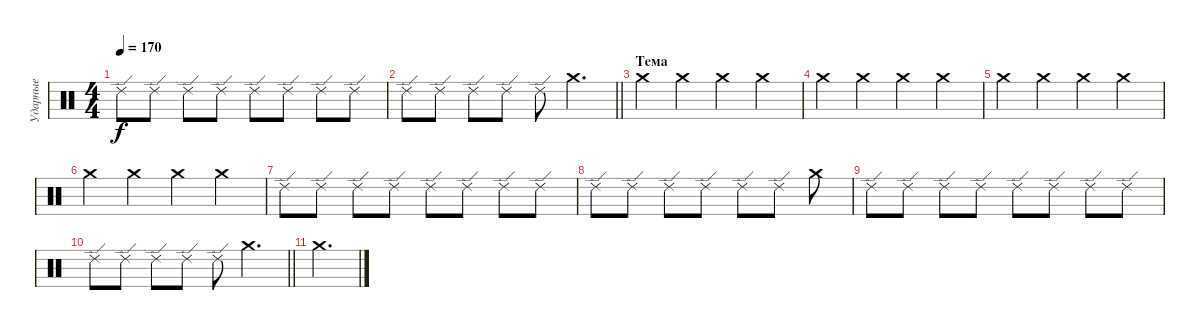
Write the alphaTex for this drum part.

\track ("Ударные" "Ударные") {instrument percussion}
\staff {score}
\articulation defaults
\ts (4 4)
\tempo 170
\clef neutral
\ks c "Ride (edge) 2".8{dy f} "Ride (edge) 2".8 "Ride (edge) 2".8 "Ride (edge) 2".8 "Ride (edge) 2".8 "Ride (edge) 2".8 "Ride (edge) 2".8 "Ride (edge) 2".8
|
\barLineRight lightlight "Ride (edge) 2".8 "Ride (edge) 2".8 "Ride (edge) 2".8 "Ride (edge) 2".8 "Ride (edge) 2".8 "Crash medium (hit)".4{d}
|
\section ("" "Тема")
"Crash medium (hit)".4 "Crash medium (hit)".4 "Crash medium (hit)".4 "Crash medium (hit)".4 |
"Crash medium (hit)".4 "Crash medium (hit)".4 "Crash medium (hit)".4 "Crash medium (hit)".4 |
"Crash medium (hit)".4 "Crash medium (hit)".4 "Crash medium (hit)".4 "Crash medium (hit)".4 |
"Crash medium (hit)".4 "Crash medium (hit)".4 "Crash medium (hit)".4 "Crash medium (hit)".4 |
"Ride (edge) 2".8 "Ride (edge) 2".8 "Ride (edge) 2".8 "Ride (edge) 2".8 "Ride (edge) 2".8 "Ride (edge) 2".8 "Ride (edge) 2".8 "Ride (edge) 2".8 |
"Ride (edge) 2".8 "Ride (edge) 2".8 "Ride (edge) 2".8 "Ride (edge) 2".8 "Ride (edge) 2".8 "Ride (edge) 2".8 "Crash medium (hit)".8 |
"Ride (edge) 2".8 "Ride (edge) 2".8 "Ride (edge) 2".8 "Ride (edge) 2".8 "Ride (edge) 2".8 "Ride (edge) 2".8 "Ride (edge) 2".8 "Ride (edge) 2".8 |
\barLineRight lightlight "Ride (edge) 2".8 "Ride (edge) 2".8 "Ride (edge) 2".8 "Ride (edge) 2".8 "Ride (edge) 2".8 "Crash medium (hit)".4{d}
|
"Crash medium (hit)".4{d}
